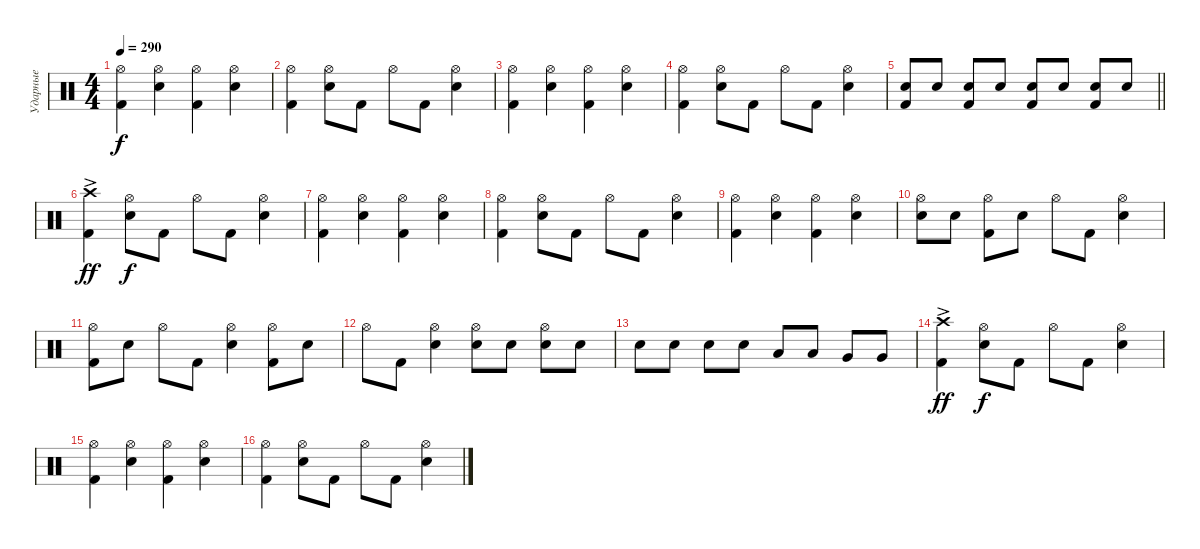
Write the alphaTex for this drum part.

\track ("Ударные" "Ударные") {instrument percussion}
\staff {score}
\articulation defaults
\ts (4 4)
\tempo 290
\clef neutral
\ks c
("Kick (hit) 2" "Hi-Hat (open)").4{dy f} ("Snare (hit) 2" "Hi-Hat (open)").4 ("Kick (hit) 2" "Hi-Hat (open)").4 ("Snare (hit) 2" "Hi-Hat (open)").4 |
("Kick (hit) 2" "Hi-Hat (open)").4 ("Snare (hit) 2" "Hi-Hat (open)").8 "Kick (hit) 2".8 "Hi-Hat (open)".8 "Kick (hit) 2".8 ("Snare (hit) 2" "Hi-Hat (open)").4 |
("Kick (hit) 2" "Hi-Hat (open)").4 ("Snare (hit) 2" "Hi-Hat (open)").4 ("Kick (hit) 2" "Hi-Hat (open)").4 ("Snare (hit) 2" "Hi-Hat (open)").4 |
("Kick (hit) 2" "Hi-Hat (open)").4 ("Snare (hit) 2" "Hi-Hat (open)").8 "Kick (hit) 2".8 "Hi-Hat (open)".8 "Kick (hit) 2".8 ("Snare (hit) 2" "Hi-Hat (open)").4 |
\barLineRight lightlight
("Kick (hit) 2" "Snare (hit) 2").8 "Snare (hit) 2".8 ("Kick (hit) 2" "Snare (hit) 2").8 "Snare (hit) 2".8 ("Kick (hit) 2" "Snare (hit) 2").8 "Snare (hit) 2".8 ("Kick (hit) 2" "Snare (hit) 2").8 "Snare (hit) 2".8 |
("Kick (hit) 2" "Crash high (hit)"{ac}).4{dy ff} ("Snare (hit) 2" "Hi-Hat (open)").8{dy f} "Kick (hit) 2".8 "Hi-Hat (open)".8 "Kick (hit) 2".8 ("Snare (hit) 2" "Hi-Hat (open)").4 |
("Kick (hit) 2" "Hi-Hat (open)").4 ("Snare (hit) 2" "Hi-Hat (open)").4 ("Kick (hit) 2" "Hi-Hat (open)").4 ("Snare (hit) 2" "Hi-Hat (open)").4 |
("Kick (hit) 2" "Hi-Hat (open)").4 ("Snare (hit) 2" "Hi-Hat (open)").8 "Kick (hit) 2".8 "Hi-Hat (open)".8 "Kick (hit) 2".8 ("Snare (hit) 2" "Hi-Hat (open)").4 |
("Kick (hit) 2" "Hi-Hat (open)").4 ("Snare (hit) 2" "Hi-Hat (open)").4 ("Kick (hit) 2" "Hi-Hat (open)").4 ("Snare (hit) 2" "Hi-Hat (open)").4 |
("Snare (hit) 2" "Hi-Hat (open)").8 "Snare (hit) 2".8 ("Kick (hit) 2" "Hi-Hat (open)").8 "Snare (hit) 2".8 "Hi-Hat (open)".8 "Kick (hit) 2".8 ("Snare (hit) 2" "Hi-Hat (open)").4 |
("Kick (hit) 2" "Hi-Hat (open)").8 "Snare (hit) 2".8 "Hi-Hat (open)".8 "Kick (hit) 2".8 ("Snare (hit) 2" "Hi-Hat (open)").4 ("Kick (hit) 2" "Hi-Hat (open)").8 "Snare (hit) 2".8 |
"Hi-Hat (open)".8 "Kick (hit) 2".8 ("Snare (hit) 2" "Hi-Hat (open)").4 ("Snare (hit) 2" "Hi-Hat (open)").8 "Snare (hit) 2".8 ("Snare (hit) 2" "Hi-Hat (open)").8 "Snare (hit) 2".8 |
"Snare (hit) 2".8 "Snare (hit) 2".8 "Snare (hit) 2".8 "Snare (hit) 2".8 "Low Tom (hit)".8 "Low Tom (hit)".8 "Very Low Tom (hit)".8 "Very Low Tom (hit)".8 |
("Kick (hit) 2" "Crash high (hit)"{ac}).4{dy ff} ("Snare (hit) 2" "Hi-Hat (open)").8{dy f} "Kick (hit) 2".8 "Hi-Hat (open)".8 "Kick (hit) 2".8 ("Snare (hit) 2" "Hi-Hat (open)").4 |
("Kick (hit) 2" "Hi-Hat (open)").4 ("Snare (hit) 2" "Hi-Hat (open)").4 ("Kick (hit) 2" "Hi-Hat (open)").4 ("Snare (hit) 2" "Hi-Hat (open)").4 |
("Kick (hit) 2" "Hi-Hat (open)").4 ("Snare (hit) 2" "Hi-Hat (open)").8 "Kick (hit) 2".8 "Hi-Hat (open)".8 "Kick (hit) 2".8 ("Snare (hit) 2" "Hi-Hat (open)").4
